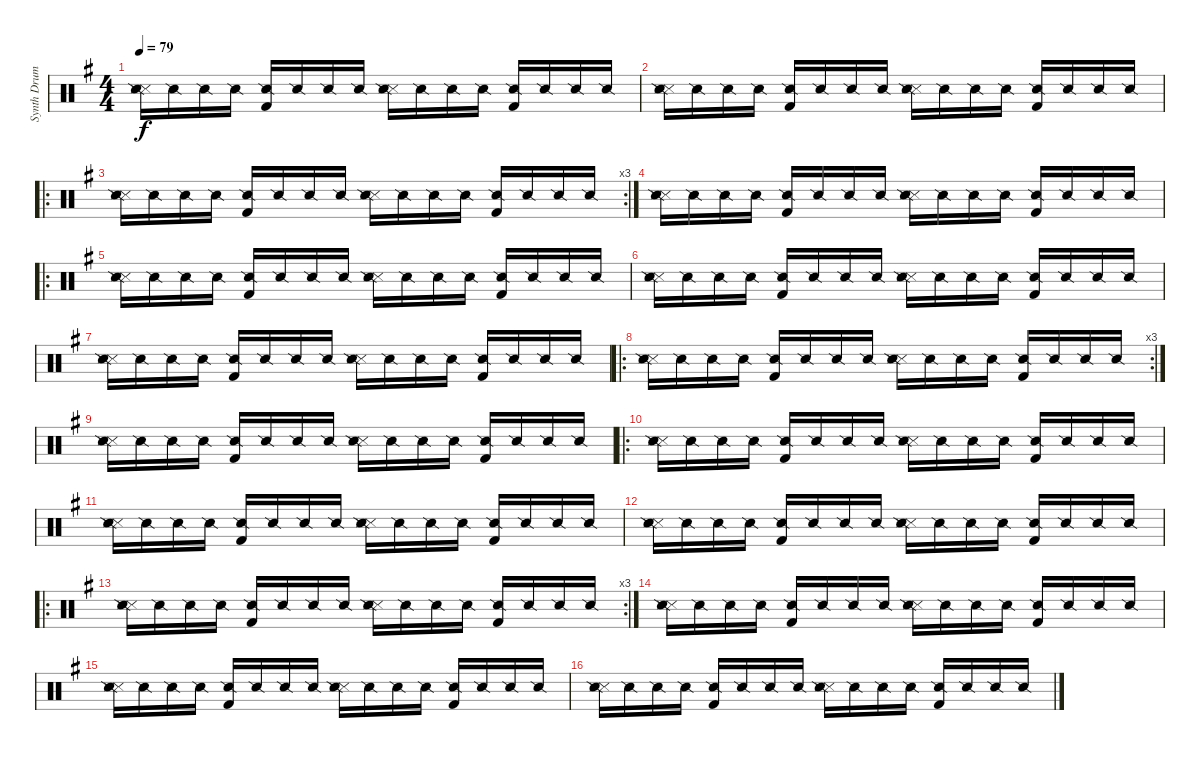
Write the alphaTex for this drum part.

\track ("Synth Drums" "Synth Drum") {instrument percussion}
\staff {score}
\articulation defaults
\ts (4 4)
\tempo 79
\clef neutral
\ks g
("Metronome (hit)" "Snare (side stick) 2" "Snare (side stick) 3").16{dy f} "Snare (side stick) 2".16 "Snare (side stick) 2".16 "Snare (side stick) 2".16 ("Kick (hit) 2" "Snare (side stick) 2").16 "Snare (side stick) 2".16 "Snare (side stick) 2".16 "Snare (side stick) 2".16 ("Metronome (hit)" "Snare (side stick) 2" "Snare (side stick) 3").16 "Snare (side stick) 2".16 "Snare (side stick) 2".16 "Snare (side stick) 2".16 ("Kick (hit) 2" "Snare (side stick) 2").16 "Snare (side stick) 2".16 "Snare (side stick) 2".16 "Snare (side stick) 2".16 |
("Metronome (hit)" "Snare (side stick) 2" "Snare (side stick) 3").16 "Snare (side stick) 2".16 "Snare (side stick) 2".16 "Snare (side stick) 2".16 ("Kick (hit) 2" "Snare (side stick) 2").16 "Snare (side stick) 2".16 "Snare (side stick) 2".16 "Snare (side stick) 2".16 ("Metronome (hit)" "Snare (side stick) 2" "Snare (side stick) 3").16 "Snare (side stick) 2".16 "Snare (side stick) 2".16 "Snare (side stick) 2".16 ("Kick (hit) 2" "Snare (side stick) 2").16 "Snare (side stick) 2".16 "Snare (side stick) 2".16 "Snare (side stick) 2".16 |
\ro
\rc 3
("Metronome (hit)" "Snare (side stick) 2" "Snare (side stick) 3").16 "Snare (side stick) 2".16 "Snare (side stick) 2".16 "Snare (side stick) 2".16 ("Kick (hit) 2" "Snare (side stick) 2").16 "Snare (side stick) 2".16 "Snare (side stick) 2".16 "Snare (side stick) 2".16 ("Metronome (hit)" "Snare (side stick) 2" "Snare (side stick) 3").16 "Snare (side stick) 2".16 "Snare (side stick) 2".16 "Snare (side stick) 2".16 ("Kick (hit) 2" "Snare (side stick) 2").16 "Snare (side stick) 2".16 "Snare (side stick) 2".16 "Snare (side stick) 2".16 |
("Metronome (hit)" "Snare (side stick) 2" "Snare (side stick) 3").16 "Snare (side stick) 2".16 "Snare (side stick) 2".16 "Snare (side stick) 2".16 ("Kick (hit) 2" "Snare (side stick) 2").16 "Snare (side stick) 2".16 "Snare (side stick) 2".16 "Snare (side stick) 2".16 ("Metronome (hit)" "Snare (side stick) 2" "Snare (side stick) 3").16 "Snare (side stick) 2".16 "Snare (side stick) 2".16 "Snare (side stick) 2".16 ("Kick (hit) 2" "Snare (side stick) 2").16 "Snare (side stick) 2".16 "Snare (side stick) 2".16 "Snare (side stick) 2".16 |
\ro
("Metronome (hit)" "Snare (side stick) 2" "Snare (side stick) 3").16 "Snare (side stick) 2".16 "Snare (side stick) 2".16 "Snare (side stick) 2".16 ("Kick (hit) 2" "Snare (side stick) 2").16 "Snare (side stick) 2".16 "Snare (side stick) 2".16 "Snare (side stick) 2".16 ("Metronome (hit)" "Snare (side stick) 2" "Snare (side stick) 3").16 "Snare (side stick) 2".16 "Snare (side stick) 2".16 "Snare (side stick) 2".16 ("Kick (hit) 2" "Snare (side stick) 2").16 "Snare (side stick) 2".16 "Snare (side stick) 2".16 "Snare (side stick) 2".16 |
("Metronome (hit)" "Snare (side stick) 2" "Snare (side stick) 3").16 "Snare (side stick) 2".16 "Snare (side stick) 2".16 "Snare (side stick) 2".16 ("Kick (hit) 2" "Snare (side stick) 2").16 "Snare (side stick) 2".16 "Snare (side stick) 2".16 "Snare (side stick) 2".16 ("Metronome (hit)" "Snare (side stick) 2" "Snare (side stick) 3").16 "Snare (side stick) 2".16 "Snare (side stick) 2".16 "Snare (side stick) 2".16 ("Kick (hit) 2" "Snare (side stick) 2").16 "Snare (side stick) 2".16 "Snare (side stick) 2".16 "Snare (side stick) 2".16 |
("Metronome (hit)" "Snare (side stick) 2" "Snare (side stick) 3").16 "Snare (side stick) 2".16 "Snare (side stick) 2".16 "Snare (side stick) 2".16 ("Kick (hit) 2" "Snare (side stick) 2").16 "Snare (side stick) 2".16 "Snare (side stick) 2".16 "Snare (side stick) 2".16 ("Metronome (hit)" "Snare (side stick) 2" "Snare (side stick) 3").16 "Snare (side stick) 2".16 "Snare (side stick) 2".16 "Snare (side stick) 2".16 ("Kick (hit) 2" "Snare (side stick) 2").16 "Snare (side stick) 2".16 "Snare (side stick) 2".16 "Snare (side stick) 2".16 |
\ro
\rc 3
("Metronome (hit)" "Snare (side stick) 2" "Snare (side stick) 3").16 "Snare (side stick) 2".16 "Snare (side stick) 2".16 "Snare (side stick) 2".16 ("Kick (hit) 2" "Snare (side stick) 2").16 "Snare (side stick) 2".16 "Snare (side stick) 2".16 "Snare (side stick) 2".16 ("Metronome (hit)" "Snare (side stick) 2" "Snare (side stick) 3").16 "Snare (side stick) 2".16 "Snare (side stick) 2".16 "Snare (side stick) 2".16 ("Kick (hit) 2" "Snare (side stick) 2").16 "Snare (side stick) 2".16 "Snare (side stick) 2".16 "Snare (side stick) 2".16 |
("Metronome (hit)" "Snare (side stick) 2" "Snare (side stick) 3").16 "Snare (side stick) 2".16 "Snare (side stick) 2".16 "Snare (side stick) 2".16 ("Kick (hit) 2" "Snare (side stick) 2").16 "Snare (side stick) 2".16 "Snare (side stick) 2".16 "Snare (side stick) 2".16 ("Metronome (hit)" "Snare (side stick) 2" "Snare (side stick) 3").16 "Snare (side stick) 2".16 "Snare (side stick) 2".16 "Snare (side stick) 2".16 ("Kick (hit) 2" "Snare (side stick) 2").16 "Snare (side stick) 2".16 "Snare (side stick) 2".16 "Snare (side stick) 2".16 |
\ro
("Metronome (hit)" "Snare (side stick) 2" "Snare (side stick) 3").16 "Snare (side stick) 2".16 "Snare (side stick) 2".16 "Snare (side stick) 2".16 ("Kick (hit) 2" "Snare (side stick) 2").16 "Snare (side stick) 2".16 "Snare (side stick) 2".16 "Snare (side stick) 2".16 ("Metronome (hit)" "Snare (side stick) 2" "Snare (side stick) 3").16 "Snare (side stick) 2".16 "Snare (side stick) 2".16 "Snare (side stick) 2".16 ("Kick (hit) 2" "Snare (side stick) 2").16 "Snare (side stick) 2".16 "Snare (side stick) 2".16 "Snare (side stick) 2".16 |
("Metronome (hit)" "Snare (side stick) 2" "Snare (side stick) 3").16 "Snare (side stick) 2".16 "Snare (side stick) 2".16 "Snare (side stick) 2".16 ("Kick (hit) 2" "Snare (side stick) 2").16 "Snare (side stick) 2".16 "Snare (side stick) 2".16 "Snare (side stick) 2".16 ("Metronome (hit)" "Snare (side stick) 2" "Snare (side stick) 3").16 "Snare (side stick) 2".16 "Snare (side stick) 2".16 "Snare (side stick) 2".16 ("Kick (hit) 2" "Snare (side stick) 2").16 "Snare (side stick) 2".16 "Snare (side stick) 2".16 "Snare (side stick) 2".16 |
("Metronome (hit)" "Snare (side stick) 2" "Snare (side stick) 3").16 "Snare (side stick) 2".16 "Snare (side stick) 2".16 "Snare (side stick) 2".16 ("Kick (hit) 2" "Snare (side stick) 2").16 "Snare (side stick) 2".16 "Snare (side stick) 2".16 "Snare (side stick) 2".16 ("Metronome (hit)" "Snare (side stick) 2" "Snare (side stick) 3").16 "Snare (side stick) 2".16 "Snare (side stick) 2".16 "Snare (side stick) 2".16 ("Kick (hit) 2" "Snare (side stick) 2").16 "Snare (side stick) 2".16 "Snare (side stick) 2".16 "Snare (side stick) 2".16 |
\ro
\rc 3
("Metronome (hit)" "Snare (side stick) 2" "Snare (side stick) 3").16 "Snare (side stick) 2".16 "Snare (side stick) 2".16 "Snare (side stick) 2".16 ("Kick (hit) 2" "Snare (side stick) 2").16 "Snare (side stick) 2".16 "Snare (side stick) 2".16 "Snare (side stick) 2".16 ("Metronome (hit)" "Snare (side stick) 2" "Snare (side stick) 3").16 "Snare (side stick) 2".16 "Snare (side stick) 2".16 "Snare (side stick) 2".16 ("Kick (hit) 2" "Snare (side stick) 2").16 "Snare (side stick) 2".16 "Snare (side stick) 2".16 "Snare (side stick) 2".16 |
("Metronome (hit)" "Snare (side stick) 2" "Snare (side stick) 3").16 "Snare (side stick) 2".16 "Snare (side stick) 2".16 "Snare (side stick) 2".16 ("Kick (hit) 2" "Snare (side stick) 2").16 "Snare (side stick) 2".16 "Snare (side stick) 2".16 "Snare (side stick) 2".16 ("Metronome (hit)" "Snare (side stick) 2" "Snare (side stick) 3").16 "Snare (side stick) 2".16 "Snare (side stick) 2".16 "Snare (side stick) 2".16 ("Kick (hit) 2" "Snare (side stick) 2").16 "Snare (side stick) 2".16 "Snare (side stick) 2".16 "Snare (side stick) 2".16 |
("Metronome (hit)" "Snare (side stick) 2" "Snare (side stick) 3").16{volume 0} "Snare (side stick) 2".16 "Snare (side stick) 2".16 "Snare (side stick) 2".16 ("Kick (hit) 2" "Snare (side stick) 2").16 "Snare (side stick) 2".16 "Snare (side stick) 2".16 "Snare (side stick) 2".16 ("Metronome (hit)" "Snare (side stick) 2" "Snare (side stick) 3").16 "Snare (side stick) 2".16 "Snare (side stick) 2".16 "Snare (side stick) 2".16 ("Kick (hit) 2" "Snare (side stick) 2").16 "Snare (side stick) 2".16 "Snare (side stick) 2".16 "Snare (side stick) 2".16 |
("Metronome (hit)" "Snare (side stick) 2" "Snare (side stick) 3").16 "Snare (side stick) 2".16 "Snare (side stick) 2".16 "Snare (side stick) 2".16 ("Kick (hit) 2" "Snare (side stick) 2").16 "Snare (side stick) 2".16 "Snare (side stick) 2".16 "Snare (side stick) 2".16 ("Metronome (hit)" "Snare (side stick) 2" "Snare (side stick) 3").16 "Snare (side stick) 2".16 "Snare (side stick) 2".16 "Snare (side stick) 2".16 ("Kick (hit) 2" "Snare (side stick) 2").16 "Snare (side stick) 2".16 "Snare (side stick) 2".16 "Snare (side stick) 2".16
